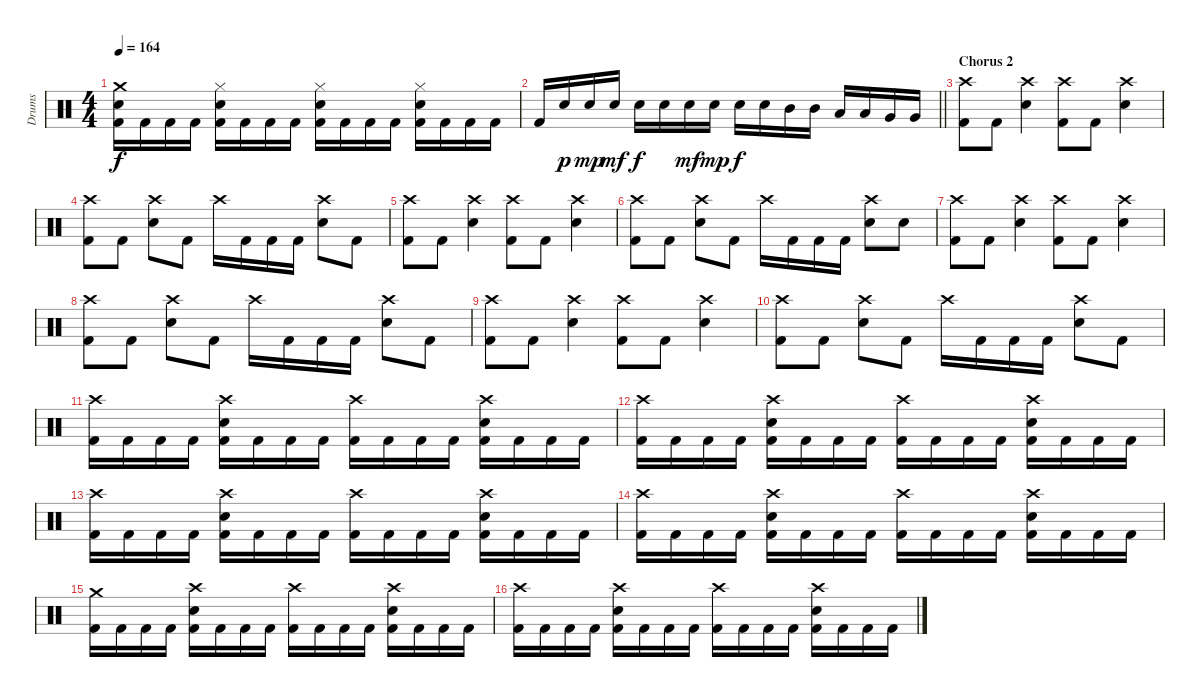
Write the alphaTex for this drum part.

\track ("Drums" "Drums") {instrument percussion}
\staff {score}
\articulation defaults
\ts (4 4)
\tempo 164
\clef neutral
\ks c
("Crash medium (hit)" "Electric Snare (hit)" "Kick (hit) 2").16{dy f} "Kick (hit) 2".16 "Kick (hit) 2".16 "Kick (hit) 2".16 ("Hi-Hat (closed)" "Electric Snare (hit)" "Kick (hit) 2").16 "Kick (hit) 2".16 "Kick (hit) 2".16 "Kick (hit) 2".16 ("Hi-Hat (closed)" "Electric Snare (hit)" "Kick (hit) 2").16 "Kick (hit) 2".16 "Kick (hit) 2".16 "Kick (hit) 2".16 ("Hi-Hat (closed)" "Electric Snare (hit)" "Kick (hit) 2").16 "Kick (hit) 2".16 "Kick (hit) 2".16 "Kick (hit) 2".16 |
\barLineRight lightlight "Kick (hit) 2".16 "Electric Snare (hit)".16{dy p} "Electric Snare (hit)".16{dy mp} "Electric Snare (hit)".16{dy mf} "Electric Snare (hit)".16{dy f} "Electric Snare (hit)".16 "Electric Snare (hit)".16{dy mf} "Electric Snare (hit)".16{dy mp} "Electric Snare (hit)".16{dy f} "Electric Snare (hit)".16 "Mid Tom (hit)".16 "Mid Tom (hit)".16 "Low Tom (hit)".16 "Low Tom (hit)".16 "Very Low Tom (hit)".16 "Very Low Tom (hit)".16
|
\section ("" "Chorus 2")
("Crash high (hit)" "Kick (hit) 2").8 "Kick (hit) 2".8 ("Crash high (hit)" "Electric Snare (hit)").4 ("Crash high (hit)" "Kick (hit) 2").8 "Kick (hit) 2".8 ("Crash high (hit)" "Electric Snare (hit)").4 |
("Crash high (hit)" "Kick (hit) 2").8 "Kick (hit) 2".8 ("Crash high (hit)" "Electric Snare (hit)").8 "Kick (hit) 2".8 "Crash high (hit)".16 "Kick (hit) 2".16 "Kick (hit) 2".16 "Kick (hit) 2".16 ("Crash high (hit)" "Electric Snare (hit)").8 "Kick (hit) 2".8 |
("Crash high (hit)" "Kick (hit) 2").8 "Kick (hit) 2".8 ("Crash high (hit)" "Electric Snare (hit)").4 ("Crash high (hit)" "Kick (hit) 2").8 "Kick (hit) 2".8 ("Crash high (hit)" "Electric Snare (hit)").4 |
("Crash high (hit)" "Kick (hit) 2").8 "Kick (hit) 2".8 ("Crash high (hit)" "Electric Snare (hit)").8 "Kick (hit) 2".8 "Crash high (hit)".16 "Kick (hit) 2".16 "Kick (hit) 2".16 "Kick (hit) 2".16 ("Crash high (hit)" "Electric Snare (hit)").8 "Electric Snare (hit)".8 |
("Crash high (hit)" "Kick (hit) 2").8 "Kick (hit) 2".8 ("Crash high (hit)" "Electric Snare (hit)").4 ("Crash high (hit)" "Kick (hit) 2").8 "Kick (hit) 2".8 ("Crash high (hit)" "Electric Snare (hit)").4 |
("Crash high (hit)" "Kick (hit) 2").8 "Kick (hit) 2".8 ("Crash high (hit)" "Electric Snare (hit)").8 "Kick (hit) 2".8 "Crash high (hit)".16 "Kick (hit) 2".16 "Kick (hit) 2".16 "Kick (hit) 2".16 ("Crash high (hit)" "Electric Snare (hit)").8 "Kick (hit) 2".8 |
("Crash high (hit)" "Kick (hit) 2").8 "Kick (hit) 2".8 ("Crash high (hit)" "Electric Snare (hit)").4 ("Crash high (hit)" "Kick (hit) 2").8 "Kick (hit) 2".8 ("Crash high (hit)" "Electric Snare (hit)").4 |
("Crash high (hit)" "Kick (hit) 2").8 "Kick (hit) 2".8 ("Crash high (hit)" "Electric Snare (hit)").8 "Kick (hit) 2".8 "Crash high (hit)".16 "Kick (hit) 2".16 "Kick (hit) 2".16 "Kick (hit) 2".16 ("Crash high (hit)" "Electric Snare (hit)").8 "Kick (hit) 2".8 |
("Crash high (hit)" "Kick (hit) 2").16 "Kick (hit) 2".16 "Kick (hit) 2".16 "Kick (hit) 2".16 ("Crash high (hit)" "Electric Snare (hit)" "Kick (hit) 2").16 "Kick (hit) 2".16 "Kick (hit) 2".16 "Kick (hit) 2".16 ("Crash high (hit)" "Kick (hit) 2").16 "Kick (hit) 2".16 "Kick (hit) 2".16 "Kick (hit) 2".16 ("Crash high (hit)" "Electric Snare (hit)" "Kick (hit) 2").16 "Kick (hit) 2".16 "Kick (hit) 2".16 "Kick (hit) 2".16 |
("Crash high (hit)" "Kick (hit) 2").16 "Kick (hit) 2".16 "Kick (hit) 2".16 "Kick (hit) 2".16 ("Crash high (hit)" "Electric Snare (hit)" "Kick (hit) 2").16 "Kick (hit) 2".16 "Kick (hit) 2".16 "Kick (hit) 2".16 ("Crash high (hit)" "Kick (hit) 2").16 "Kick (hit) 2".16 "Kick (hit) 2".16 "Kick (hit) 2".16 ("Crash high (hit)" "Electric Snare (hit)" "Kick (hit) 2").16 "Kick (hit) 2".16 "Kick (hit) 2".16 "Kick (hit) 2".16 |
("Crash high (hit)" "Kick (hit) 2").16 "Kick (hit) 2".16 "Kick (hit) 2".16 "Kick (hit) 2".16 ("Crash high (hit)" "Electric Snare (hit)" "Kick (hit) 2").16 "Kick (hit) 2".16 "Kick (hit) 2".16 "Kick (hit) 2".16 ("Crash high (hit)" "Kick (hit) 2").16 "Kick (hit) 2".16 "Kick (hit) 2".16 "Kick (hit) 2".16 ("Crash high (hit)" "Electric Snare (hit)" "Kick (hit) 2").16 "Kick (hit) 2".16 "Kick (hit) 2".16 "Kick (hit) 2".16 |
("Crash high (hit)" "Kick (hit) 2").16 "Kick (hit) 2".16 "Kick (hit) 2".16 "Kick (hit) 2".16 ("Crash high (hit)" "Electric Snare (hit)" "Kick (hit) 2").16 "Kick (hit) 2".16 "Kick (hit) 2".16 "Kick (hit) 2".16 ("Crash high (hit)" "Kick (hit) 2").16 "Kick (hit) 2".16 "Kick (hit) 2".16 "Kick (hit) 2".16 ("Crash high (hit)" "Electric Snare (hit)" "Kick (hit) 2").16 "Kick (hit) 2".16 "Kick (hit) 2".16 "Kick (hit) 2".16 |
("Crash medium (hit)" "Kick (hit) 2").16 "Kick (hit) 2".16 "Kick (hit) 2".16 "Kick (hit) 2".16 ("Crash high (hit)" "Electric Snare (hit)" "Kick (hit) 2").16 "Kick (hit) 2".16 "Kick (hit) 2".16 "Kick (hit) 2".16 ("Crash high (hit)" "Kick (hit) 2").16 "Kick (hit) 2".16 "Kick (hit) 2".16 "Kick (hit) 2".16 ("Crash high (hit)" "Electric Snare (hit)" "Kick (hit) 2").16 "Kick (hit) 2".16 "Kick (hit) 2".16 "Kick (hit) 2".16 |
("Crash high (hit)" "Kick (hit) 2").16 "Kick (hit) 2".16 "Kick (hit) 2".16 "Kick (hit) 2".16 ("Crash high (hit)" "Electric Snare (hit)" "Kick (hit) 2").16 "Kick (hit) 2".16 "Kick (hit) 2".16 "Kick (hit) 2".16 ("Crash high (hit)" "Kick (hit) 2").16 "Kick (hit) 2".16 "Kick (hit) 2".16 "Kick (hit) 2".16 ("Crash high (hit)" "Electric Snare (hit)" "Kick (hit) 2").16 "Kick (hit) 2".16 "Kick (hit) 2".16 "Kick (hit) 2".16
